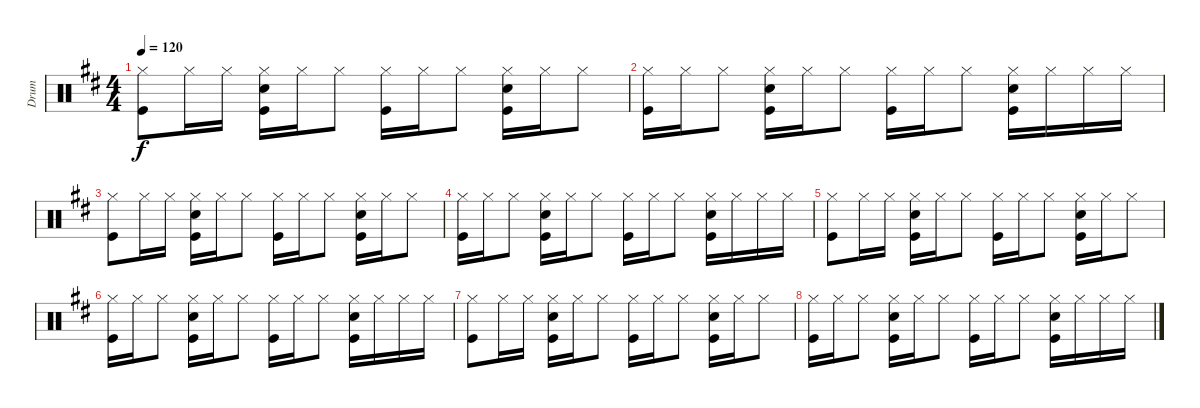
\track ("Drum" "Drum") {instrument percussion}
\staff {score}
\articulation defaults
\ts (4 4)
\tempo 120
\clef neutral
\ks d
("Hi-Hat (closed)" "Kick (hit)").8{dy f} "Hi-Hat (closed)".16 "Hi-Hat (closed)".16 ("Hi-Hat (closed)" "Snare (hit) 2" "Kick (hit)").16 "Hi-Hat (closed)".16 "Hi-Hat (closed)".8 ("Hi-Hat (closed)" "Kick (hit)").16 "Hi-Hat (closed)".16 "Hi-Hat (closed)".8 ("Hi-Hat (closed)" "Snare (hit) 2" "Kick (hit)").16 "Hi-Hat (closed)".16 "Hi-Hat (closed)".8 |
("Hi-Hat (closed)" "Kick (hit)").16 "Hi-Hat (closed)".16 "Hi-Hat (closed)".8 ("Hi-Hat (closed)" "Snare (hit) 2" "Kick (hit)").16 "Hi-Hat (closed)".16 "Hi-Hat (closed)".8 ("Hi-Hat (closed)" "Kick (hit)").16 "Hi-Hat (closed)".16 "Hi-Hat (closed)".8 ("Hi-Hat (closed)" "Snare (hit) 2" "Kick (hit)").16 "Hi-Hat (closed)".16 "Hi-Hat (closed)".16 "Hi-Hat (closed)".16 |
("Hi-Hat (closed)" "Kick (hit)").8 "Hi-Hat (closed)".16 "Hi-Hat (closed)".16 ("Hi-Hat (closed)" "Snare (hit) 2" "Kick (hit)").16 "Hi-Hat (closed)".16 "Hi-Hat (closed)".8 ("Hi-Hat (closed)" "Kick (hit)").16 "Hi-Hat (closed)".16 "Hi-Hat (closed)".8 ("Hi-Hat (closed)" "Snare (hit) 2" "Kick (hit)").16 "Hi-Hat (closed)".16 "Hi-Hat (closed)".8 |
("Hi-Hat (closed)" "Kick (hit)").16 "Hi-Hat (closed)".16 "Hi-Hat (closed)".8 ("Hi-Hat (closed)" "Snare (hit) 2" "Kick (hit)").16 "Hi-Hat (closed)".16 "Hi-Hat (closed)".8 ("Hi-Hat (closed)" "Kick (hit)").16 "Hi-Hat (closed)".16 "Hi-Hat (closed)".8 ("Hi-Hat (closed)" "Snare (hit) 2" "Kick (hit)").16 "Hi-Hat (closed)".16 "Hi-Hat (closed)".16 "Hi-Hat (closed)".16 |
("Hi-Hat (closed)" "Kick (hit)").8 "Hi-Hat (closed)".16 "Hi-Hat (closed)".16 ("Hi-Hat (closed)" "Snare (hit) 2" "Kick (hit)").16 "Hi-Hat (closed)".16 "Hi-Hat (closed)".8 ("Hi-Hat (closed)" "Kick (hit)").16 "Hi-Hat (closed)".16 "Hi-Hat (closed)".8 ("Hi-Hat (closed)" "Snare (hit) 2" "Kick (hit)").16 "Hi-Hat (closed)".16 "Hi-Hat (closed)".8 |
("Hi-Hat (closed)" "Kick (hit)").16 "Hi-Hat (closed)".16 "Hi-Hat (closed)".8 ("Hi-Hat (closed)" "Snare (hit) 2" "Kick (hit)").16 "Hi-Hat (closed)".16 "Hi-Hat (closed)".8 ("Hi-Hat (closed)" "Kick (hit)").16 "Hi-Hat (closed)".16 "Hi-Hat (closed)".8 ("Hi-Hat (closed)" "Snare (hit) 2" "Kick (hit)").16 "Hi-Hat (closed)".16 "Hi-Hat (closed)".16 "Hi-Hat (closed)".16 |
("Hi-Hat (closed)" "Kick (hit)").8 "Hi-Hat (closed)".16 "Hi-Hat (closed)".16 ("Hi-Hat (closed)" "Snare (hit) 2" "Kick (hit)").16 "Hi-Hat (closed)".16 "Hi-Hat (closed)".8 ("Hi-Hat (closed)" "Kick (hit)").16 "Hi-Hat (closed)".16 "Hi-Hat (closed)".8 ("Hi-Hat (closed)" "Snare (hit) 2" "Kick (hit)").16 "Hi-Hat (closed)".16 "Hi-Hat (closed)".8 |
("Hi-Hat (closed)" "Kick (hit)").16 "Hi-Hat (closed)".16 "Hi-Hat (closed)".8 ("Hi-Hat (closed)" "Snare (hit) 2" "Kick (hit)").16 "Hi-Hat (closed)".16 "Hi-Hat (closed)".8 ("Hi-Hat (closed)" "Kick (hit)").16 "Hi-Hat (closed)".16 "Hi-Hat (closed)".8 ("Hi-Hat (closed)" "Snare (hit) 2" "Kick (hit)").16 "Hi-Hat (closed)".16 "Hi-Hat (closed)".16 "Hi-Hat (closed)".16
